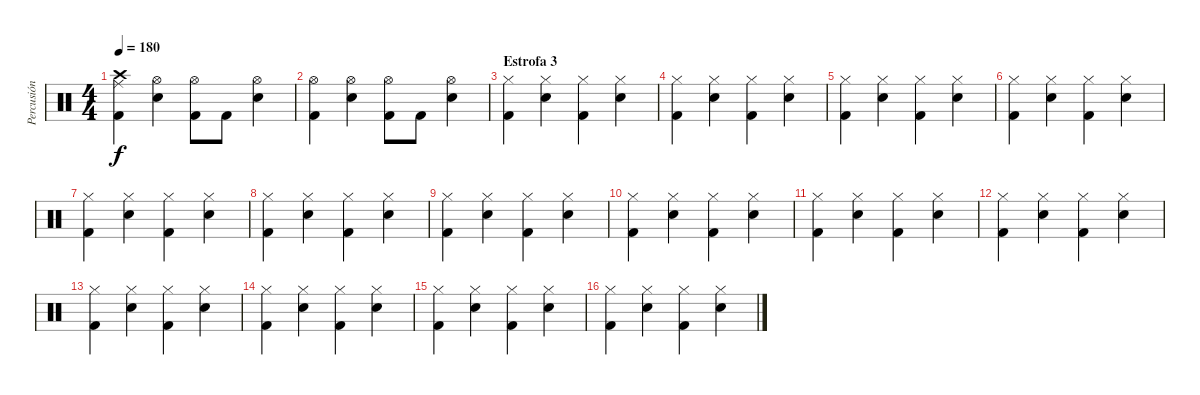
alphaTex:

\track ("Percusión" "Percusión") {instrument percussion}
\staff {score}
\articulation defaults
\ts (4 4)
\tempo 180
\clef neutral
\ks c
("Ride (middle)" "Crash high (hit)" "Kick (hit) 2").4{dy f} ("Hi-Hat (open)" "Electric Snare (hit)").4 ("Hi-Hat (open)" "Kick (hit) 2").8 "Kick (hit) 2".8 ("Hi-Hat (open)" "Electric Snare (hit)").4 |
("Hi-Hat (open)" "Kick (hit) 2").4 ("Hi-Hat (open)" "Electric Snare (hit)").4 ("Hi-Hat (open)" "Kick (hit) 2").8 "Kick (hit) 2".8 ("Hi-Hat (open)" "Electric Snare (hit)").4 |
\section ("" "Estrofa 3")
("Hi-Hat (closed)" "Kick (hit) 2").4 ("Hi-Hat (closed)" "Electric Snare (hit)").4 ("Hi-Hat (closed)" "Kick (hit) 2").4 ("Hi-Hat (closed)" "Electric Snare (hit)").4 |
("Hi-Hat (closed)" "Kick (hit) 2").4 ("Hi-Hat (closed)" "Electric Snare (hit)").4 ("Hi-Hat (closed)" "Kick (hit) 2").4 ("Hi-Hat (closed)" "Electric Snare (hit)").4 |
("Hi-Hat (closed)" "Kick (hit) 2").4 ("Hi-Hat (closed)" "Electric Snare (hit)").4 ("Hi-Hat (closed)" "Kick (hit) 2").4 ("Hi-Hat (closed)" "Electric Snare (hit)").4 |
("Hi-Hat (closed)" "Kick (hit) 2").4 ("Hi-Hat (closed)" "Electric Snare (hit)").4 ("Hi-Hat (closed)" "Kick (hit) 2").4 ("Hi-Hat (closed)" "Electric Snare (hit)").4 |
("Hi-Hat (closed)" "Kick (hit) 2").4 ("Hi-Hat (closed)" "Electric Snare (hit)").4 ("Hi-Hat (closed)" "Kick (hit) 2").4 ("Hi-Hat (closed)" "Electric Snare (hit)").4 |
("Hi-Hat (closed)" "Kick (hit) 2").4 ("Hi-Hat (closed)" "Electric Snare (hit)").4 ("Hi-Hat (closed)" "Kick (hit) 2").4 ("Hi-Hat (closed)" "Electric Snare (hit)").4 |
("Hi-Hat (closed)" "Kick (hit) 2").4 ("Hi-Hat (closed)" "Electric Snare (hit)").4 ("Hi-Hat (closed)" "Kick (hit) 2").4 ("Hi-Hat (closed)" "Electric Snare (hit)").4 |
("Hi-Hat (closed)" "Kick (hit) 2").4 ("Hi-Hat (closed)" "Electric Snare (hit)").4 ("Hi-Hat (closed)" "Kick (hit) 2").4 ("Hi-Hat (closed)" "Electric Snare (hit)").4 |
("Hi-Hat (closed)" "Kick (hit) 2").4 ("Hi-Hat (closed)" "Electric Snare (hit)").4 ("Hi-Hat (closed)" "Kick (hit) 2").4 ("Hi-Hat (closed)" "Electric Snare (hit)").4 |
("Hi-Hat (closed)" "Kick (hit) 2").4 ("Hi-Hat (closed)" "Electric Snare (hit)").4 ("Hi-Hat (closed)" "Kick (hit) 2").4 ("Hi-Hat (closed)" "Electric Snare (hit)").4 |
("Hi-Hat (closed)" "Kick (hit) 2").4 ("Hi-Hat (closed)" "Electric Snare (hit)").4 ("Hi-Hat (closed)" "Kick (hit) 2").4 ("Hi-Hat (closed)" "Electric Snare (hit)").4 |
("Hi-Hat (closed)" "Kick (hit) 2").4 ("Hi-Hat (closed)" "Electric Snare (hit)").4 ("Hi-Hat (closed)" "Kick (hit) 2").4 ("Hi-Hat (closed)" "Electric Snare (hit)").4 |
("Hi-Hat (closed)" "Kick (hit) 2").4 ("Hi-Hat (closed)" "Electric Snare (hit)").4 ("Hi-Hat (closed)" "Kick (hit) 2").4 ("Hi-Hat (closed)" "Electric Snare (hit)").4 |
("Hi-Hat (closed)" "Kick (hit) 2").4 ("Hi-Hat (closed)" "Electric Snare (hit)").4 ("Hi-Hat (closed)" "Kick (hit) 2").4 ("Hi-Hat (closed)" "Electric Snare (hit)").4
